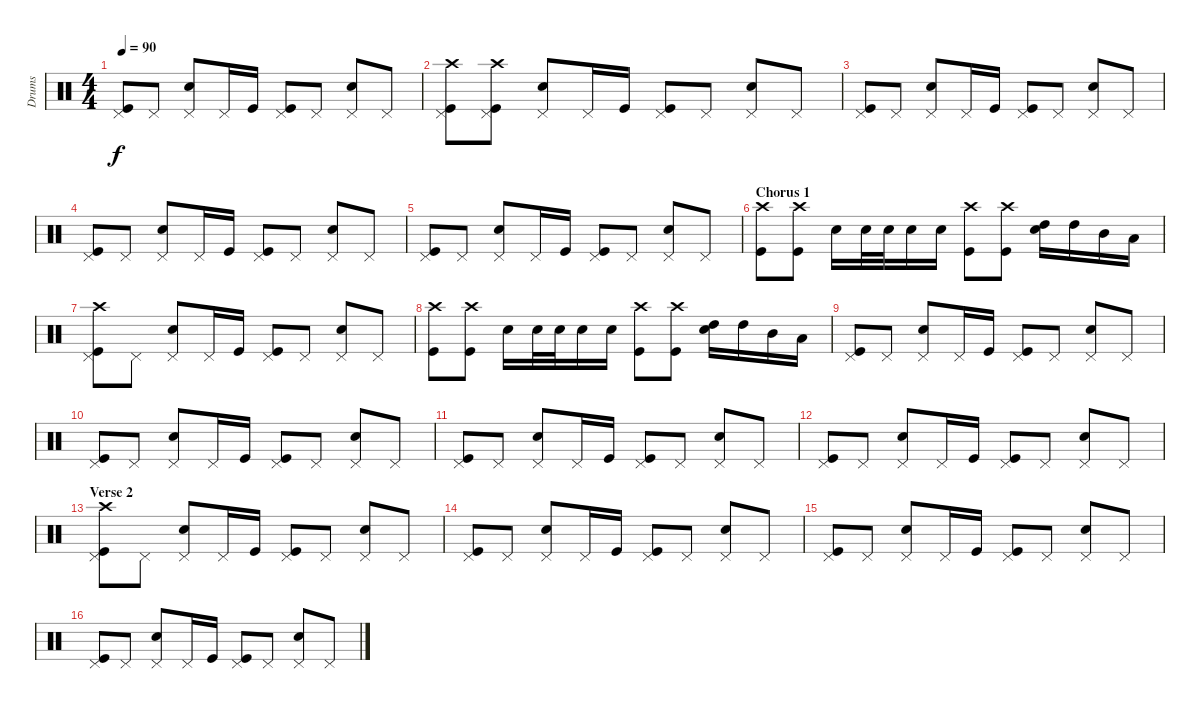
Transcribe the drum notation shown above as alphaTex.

\track ("Drums" "Drums") {instrument percussion}
\staff {score}
\articulation defaults
\ts (4 4)
\tempo 90
\clef neutral
\ks c
("Pedal Hi-Hat (hit)" "Kick (hit)").8{dy f} "Pedal Hi-Hat (hit)".8 ("Pedal Hi-Hat (hit)" "Snare (hit) 2").8 "Pedal Hi-Hat (hit)".16 "Kick (hit)".16 ("Pedal Hi-Hat (hit)" "Kick (hit)").8 "Pedal Hi-Hat (hit)".8 ("Pedal Hi-Hat (hit)" "Snare (hit) 2").8 "Pedal Hi-Hat (hit)".8 |
("Pedal Hi-Hat (hit)" "Kick (hit)" "Crash high (hit)").8 ("Pedal Hi-Hat (hit)" "Kick (hit)" "Crash high (hit)").8 ("Pedal Hi-Hat (hit)" "Snare (hit) 2").8 "Pedal Hi-Hat (hit)".16 "Kick (hit)".16 ("Pedal Hi-Hat (hit)" "Kick (hit)").8 "Pedal Hi-Hat (hit)".8 ("Pedal Hi-Hat (hit)" "Snare (hit) 2").8 "Pedal Hi-Hat (hit)".8 |
("Pedal Hi-Hat (hit)" "Kick (hit)").8 "Pedal Hi-Hat (hit)".8 ("Pedal Hi-Hat (hit)" "Snare (hit) 2").8 "Pedal Hi-Hat (hit)".16 "Kick (hit)".16 ("Pedal Hi-Hat (hit)" "Kick (hit)").8 "Pedal Hi-Hat (hit)".8 ("Pedal Hi-Hat (hit)" "Snare (hit) 2").8 "Pedal Hi-Hat (hit)".8 |
("Pedal Hi-Hat (hit)" "Kick (hit)").8 "Pedal Hi-Hat (hit)".8 ("Pedal Hi-Hat (hit)" "Snare (hit) 2").8 "Pedal Hi-Hat (hit)".16 "Kick (hit)".16 ("Pedal Hi-Hat (hit)" "Kick (hit)").8 "Pedal Hi-Hat (hit)".8 ("Pedal Hi-Hat (hit)" "Snare (hit) 2").8 "Pedal Hi-Hat (hit)".8 |
("Pedal Hi-Hat (hit)" "Kick (hit)").8 "Pedal Hi-Hat (hit)".8 ("Pedal Hi-Hat (hit)" "Snare (hit) 2").8 "Pedal Hi-Hat (hit)".16 "Kick (hit)".16 ("Pedal Hi-Hat (hit)" "Kick (hit)").8 "Pedal Hi-Hat (hit)".8 ("Pedal Hi-Hat (hit)" "Snare (hit) 2").8 "Pedal Hi-Hat (hit)".8 |
\section ("" "Chorus 1")
("Kick (hit)" "Crash high (hit)").8 ("Kick (hit)" "Crash high (hit)").8 "Snare (hit) 2".16 "Snare (hit) 2".32 "Snare (hit) 2".32 "Snare (hit) 2".16 "Snare (hit) 2".16 ("Kick (hit)" "Crash high (hit)").8 ("Kick (hit)" "Crash high (hit)").8 ("Snare (hit) 2" "High Tom (hit)").16 "High Tom (hit)".16 "Mid Tom (hit)".16 "Low Tom (hit)".16 |
("Pedal Hi-Hat (hit)" "Kick (hit)" "Crash high (hit)").8 "Pedal Hi-Hat (hit)".8 ("Pedal Hi-Hat (hit)" "Snare (hit) 2").8 "Pedal Hi-Hat (hit)".16 "Kick (hit)".16 ("Pedal Hi-Hat (hit)" "Kick (hit)").8 "Pedal Hi-Hat (hit)".8 ("Pedal Hi-Hat (hit)" "Snare (hit) 2").8 "Pedal Hi-Hat (hit)".8 |
("Kick (hit)" "Crash high (hit)").8 ("Kick (hit)" "Crash high (hit)").8 "Snare (hit) 2".16 "Snare (hit) 2".32 "Snare (hit) 2".32 "Snare (hit) 2".16 "Snare (hit) 2".16 ("Kick (hit)" "Crash high (hit)").8 ("Kick (hit)" "Crash high (hit)").8 ("Snare (hit) 2" "High Tom (hit)").16 "High Tom (hit)".16 "Mid Tom (hit)".16 "Low Tom (hit)".16 |
("Pedal Hi-Hat (hit)" "Kick (hit)").8 "Pedal Hi-Hat (hit)".8 ("Pedal Hi-Hat (hit)" "Snare (hit) 2").8 "Pedal Hi-Hat (hit)".16 "Kick (hit)".16 ("Pedal Hi-Hat (hit)" "Kick (hit)").8 "Pedal Hi-Hat (hit)".8 ("Pedal Hi-Hat (hit)" "Snare (hit) 2").8 "Pedal Hi-Hat (hit)".8 |
("Pedal Hi-Hat (hit)" "Kick (hit)").8 "Pedal Hi-Hat (hit)".8 ("Pedal Hi-Hat (hit)" "Snare (hit) 2").8 "Pedal Hi-Hat (hit)".16 "Kick (hit)".16 ("Pedal Hi-Hat (hit)" "Kick (hit)").8 "Pedal Hi-Hat (hit)".8 ("Pedal Hi-Hat (hit)" "Snare (hit) 2").8 "Pedal Hi-Hat (hit)".8 |
("Pedal Hi-Hat (hit)" "Kick (hit)").8 "Pedal Hi-Hat (hit)".8 ("Pedal Hi-Hat (hit)" "Snare (hit) 2").8 "Pedal Hi-Hat (hit)".16 "Kick (hit)".16 ("Pedal Hi-Hat (hit)" "Kick (hit)").8 "Pedal Hi-Hat (hit)".8 ("Pedal Hi-Hat (hit)" "Snare (hit) 2").8 "Pedal Hi-Hat (hit)".8 |
("Pedal Hi-Hat (hit)" "Kick (hit)").8 "Pedal Hi-Hat (hit)".8 ("Pedal Hi-Hat (hit)" "Snare (hit) 2").8 "Pedal Hi-Hat (hit)".16 "Kick (hit)".16 ("Pedal Hi-Hat (hit)" "Kick (hit)").8 "Pedal Hi-Hat (hit)".8 ("Pedal Hi-Hat (hit)" "Snare (hit) 2").8 "Pedal Hi-Hat (hit)".8 |
\section ("" "Verse 2")
("Pedal Hi-Hat (hit)" "Kick (hit)" "Crash high (hit)").8 "Pedal Hi-Hat (hit)".8 ("Pedal Hi-Hat (hit)" "Snare (hit) 2").8 "Pedal Hi-Hat (hit)".16 "Kick (hit)".16 ("Pedal Hi-Hat (hit)" "Kick (hit)").8 "Pedal Hi-Hat (hit)".8 ("Pedal Hi-Hat (hit)" "Snare (hit) 2").8 "Pedal Hi-Hat (hit)".8 |
("Pedal Hi-Hat (hit)" "Kick (hit)").8 "Pedal Hi-Hat (hit)".8 ("Pedal Hi-Hat (hit)" "Snare (hit) 2").8 "Pedal Hi-Hat (hit)".16 "Kick (hit)".16 ("Pedal Hi-Hat (hit)" "Kick (hit)").8 "Pedal Hi-Hat (hit)".8 ("Pedal Hi-Hat (hit)" "Snare (hit) 2").8 "Pedal Hi-Hat (hit)".8 |
("Pedal Hi-Hat (hit)" "Kick (hit)").8 "Pedal Hi-Hat (hit)".8 ("Pedal Hi-Hat (hit)" "Snare (hit) 2").8 "Pedal Hi-Hat (hit)".16 "Kick (hit)".16 ("Pedal Hi-Hat (hit)" "Kick (hit)").8 "Pedal Hi-Hat (hit)".8 ("Pedal Hi-Hat (hit)" "Snare (hit) 2").8 "Pedal Hi-Hat (hit)".8 |
("Pedal Hi-Hat (hit)" "Kick (hit)").8 "Pedal Hi-Hat (hit)".8 ("Pedal Hi-Hat (hit)" "Snare (hit) 2").8 "Pedal Hi-Hat (hit)".16 "Kick (hit)".16 ("Pedal Hi-Hat (hit)" "Kick (hit)").8 "Pedal Hi-Hat (hit)".8 ("Pedal Hi-Hat (hit)" "Snare (hit) 2").8 "Pedal Hi-Hat (hit)".8
